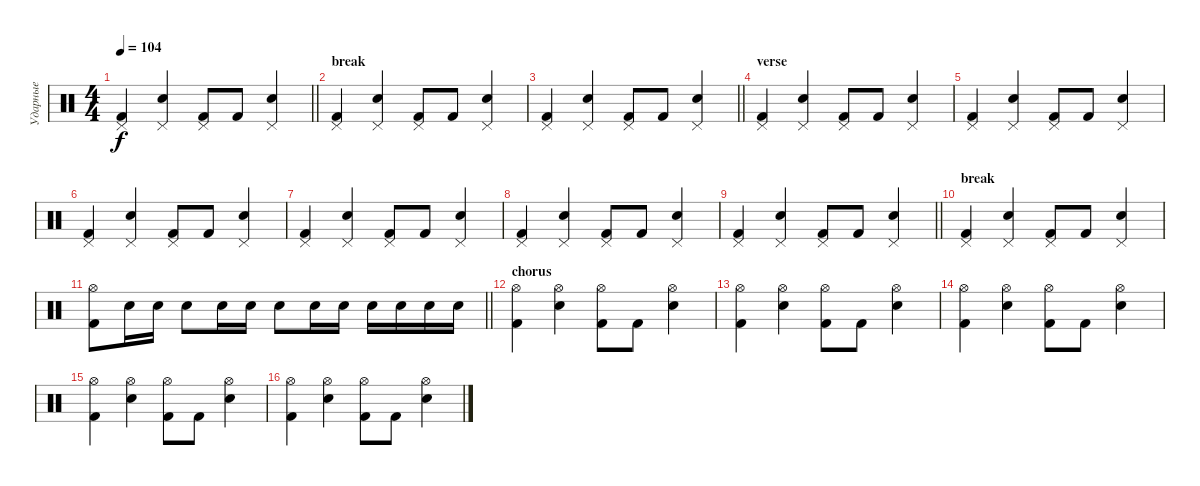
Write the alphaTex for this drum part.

\track ("Ударные" "Ударные") {instrument percussion}
\staff {score}
\articulation defaults
\ts (4 4)
\tempo 104
\clef neutral
\barLineRight lightlight
\ks c
("Pedal Hi-Hat (hit)" "Kick (hit) 2").4{dy f} ("Pedal Hi-Hat (hit)" "Electric Snare (hit)").4 ("Pedal Hi-Hat (hit)" "Kick (hit) 2").8 "Kick (hit) 2".8 ("Pedal Hi-Hat (hit)" "Electric Snare (hit)").4 |
\section ("" "break")
("Pedal Hi-Hat (hit)" "Kick (hit) 2").4 ("Pedal Hi-Hat (hit)" "Electric Snare (hit)").4 ("Pedal Hi-Hat (hit)" "Kick (hit) 2").8 "Kick (hit) 2".8 ("Pedal Hi-Hat (hit)" "Electric Snare (hit)").4 |
\barLineRight lightlight
("Pedal Hi-Hat (hit)" "Kick (hit) 2").4 ("Pedal Hi-Hat (hit)" "Electric Snare (hit)").4 ("Pedal Hi-Hat (hit)" "Kick (hit) 2").8 "Kick (hit) 2".8 ("Pedal Hi-Hat (hit)" "Electric Snare (hit)").4 |
\section ("" "verse")
("Pedal Hi-Hat (hit)" "Kick (hit) 2").4 ("Pedal Hi-Hat (hit)" "Electric Snare (hit)").4 ("Pedal Hi-Hat (hit)" "Kick (hit) 2").8 "Kick (hit) 2".8 ("Pedal Hi-Hat (hit)" "Electric Snare (hit)").4 |
("Pedal Hi-Hat (hit)" "Kick (hit) 2").4 ("Pedal Hi-Hat (hit)" "Electric Snare (hit)").4 ("Pedal Hi-Hat (hit)" "Kick (hit) 2").8 "Kick (hit) 2".8 ("Pedal Hi-Hat (hit)" "Electric Snare (hit)").4 |
("Pedal Hi-Hat (hit)" "Kick (hit) 2").4 ("Pedal Hi-Hat (hit)" "Electric Snare (hit)").4 ("Pedal Hi-Hat (hit)" "Kick (hit) 2").8 "Kick (hit) 2".8 ("Pedal Hi-Hat (hit)" "Electric Snare (hit)").4 |
("Pedal Hi-Hat (hit)" "Kick (hit) 2").4 ("Pedal Hi-Hat (hit)" "Electric Snare (hit)").4 ("Pedal Hi-Hat (hit)" "Kick (hit) 2").8 "Kick (hit) 2".8 ("Pedal Hi-Hat (hit)" "Electric Snare (hit)").4 |
("Pedal Hi-Hat (hit)" "Kick (hit) 2").4 ("Pedal Hi-Hat (hit)" "Electric Snare (hit)").4 ("Pedal Hi-Hat (hit)" "Kick (hit) 2").8 "Kick (hit) 2".8 ("Pedal Hi-Hat (hit)" "Electric Snare (hit)").4 |
\barLineRight lightlight
("Pedal Hi-Hat (hit)" "Kick (hit) 2").4 ("Pedal Hi-Hat (hit)" "Electric Snare (hit)").4 ("Pedal Hi-Hat (hit)" "Kick (hit) 2").8 "Kick (hit) 2".8 ("Pedal Hi-Hat (hit)" "Electric Snare (hit)").4 |
\section ("" "break")
("Pedal Hi-Hat (hit)" "Kick (hit) 2").4 ("Pedal Hi-Hat (hit)" "Electric Snare (hit)").4 ("Pedal Hi-Hat (hit)" "Kick (hit) 2").8 "Kick (hit) 2".8 ("Pedal Hi-Hat (hit)" "Electric Snare (hit)").4 |
\barLineRight lightlight
("Hi-Hat (open)" "Kick (hit) 2").8 "Electric Snare (hit)".16 "Electric Snare (hit)".16 "Electric Snare (hit)".8 "Electric Snare (hit)".16 "Electric Snare (hit)".16 "Electric Snare (hit)".8 "Electric Snare (hit)".16 "Electric Snare (hit)".16 "Electric Snare (hit)".16 "Electric Snare (hit)".16 "Electric Snare (hit)".16 "Electric Snare (hit)".16 |
\section ("" "chorus")
("Hi-Hat (open)" "Kick (hit) 2").4 ("Hi-Hat (open)" "Electric Snare (hit)").4 ("Hi-Hat (open)" "Kick (hit) 2").8 "Kick (hit) 2".8 ("Hi-Hat (open)" "Electric Snare (hit)").4 |
("Hi-Hat (open)" "Kick (hit) 2").4 ("Hi-Hat (open)" "Electric Snare (hit)").4 ("Hi-Hat (open)" "Kick (hit) 2").8 "Kick (hit) 2".8 ("Hi-Hat (open)" "Electric Snare (hit)").4 |
("Hi-Hat (open)" "Kick (hit) 2").4 ("Hi-Hat (open)" "Electric Snare (hit)").4 ("Hi-Hat (open)" "Kick (hit) 2").8 "Kick (hit) 2".8 ("Hi-Hat (open)" "Electric Snare (hit)").4 |
("Hi-Hat (open)" "Kick (hit) 2").4 ("Hi-Hat (open)" "Electric Snare (hit)").4 ("Hi-Hat (open)" "Kick (hit) 2").8 "Kick (hit) 2".8 ("Hi-Hat (open)" "Electric Snare (hit)").4 |
("Hi-Hat (open)" "Kick (hit) 2").4 ("Hi-Hat (open)" "Electric Snare (hit)").4 ("Hi-Hat (open)" "Kick (hit) 2").8 "Kick (hit) 2".8 ("Hi-Hat (open)" "Electric Snare (hit)").4
